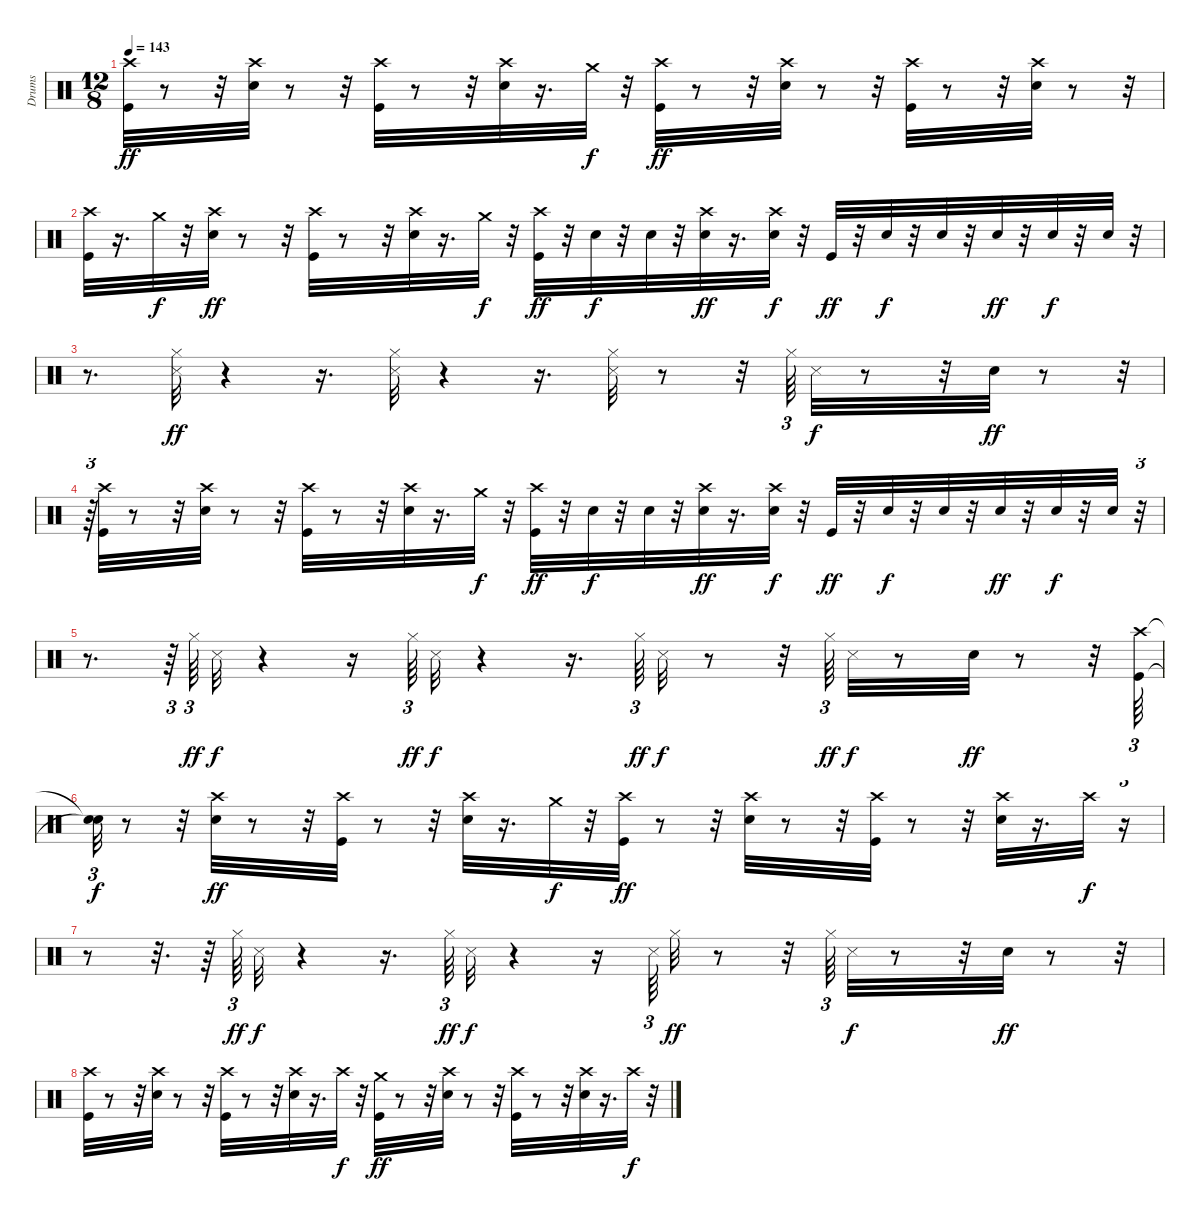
\track ("Drums" "Drums") {instrument percussion}
\staff {score}
\articulation defaults
\ts (12 8)
\tempo 143
\clef neutral
\ks c
("Crash high (hit)" "Kick (hit)").32{dy ff} r.8 r.32 ("Crash high (hit)" "Snare (hit) 2").32 r.8 r.32 ("Crash high (hit)" "Kick (hit)").32 r.8 r.32 ("Crash high (hit)" "Snare (hit) 2").32 r.16{d} "Crash medium (hit)".32{dy f} r.32 ("Crash high (hit)" "Kick (hit)").32{dy ff} r.8 r.32 ("Crash high (hit)" "Snare (hit) 2").32 r.8 r.32 ("Crash high (hit)" "Kick (hit)").32 r.8 r.32 ("Crash high (hit)" "Snare (hit) 2").32 r.8 r.32 |
("Crash high (hit)" "Kick (hit)").32 r.16{d} "Crash medium (hit)".32{dy f} r.32 ("Crash high (hit)" "Snare (hit) 2").32{dy ff} r.8 r.32 ("Crash high (hit)" "Kick (hit)").32 r.8 r.32 ("Crash high (hit)" "Snare (hit) 2").32 r.16{d} "Crash medium (hit)".32{dy f} r.32 ("Crash high (hit)" "Kick (hit)").32{dy ff} r.32 "Snare (hit) 2".32{dy f} r.32 "Snare (hit) 2".32 r.32 ("Crash high (hit)" "Snare (hit) 2").32{dy ff} r.16{d} ("Snare (hit) 2" "Crash high (hit)").32{dy f} r.32 "Kick (hit)".32{dy ff} r.32 "Snare (hit) 2".32{dy f} r.32 "Snare (hit) 2".32 r.32 "Snare (hit) 2".32{dy ff} r.32 "Snare (hit) 2".32{dy f} r.32 "Snare (hit) 2".32 r.32 |
r.8{d} ("Hi-Hat (closed)" "Metronome (hit)").32{dy ff} r.4 r.16{d} ("Hi-Hat (closed)" "Metronome (hit)").32 r.4 r.16{d} ("Hi-Hat (closed)" "Metronome (hit)").32 r.8 r.32 "Hi-Hat (closed)".64{tu (3 2)} "Metronome (hit)".32{dy f} r.8 r.32 "Snare (hit) 2".32{dy ff} r.8 r.32{tu (3 2)} |
r.64{tu (3 2)} ("Crash high (hit)" "Kick (hit)").32 r.8 r.32 ("Crash high (hit)" "Snare (hit) 2").32 r.8 r.32 ("Crash high (hit)" "Kick (hit)").32 r.8 r.32 ("Crash high (hit)" "Snare (hit) 2").32 r.16{d} "Crash medium (hit)".32{dy f} r.32 ("Crash high (hit)" "Kick (hit)").32{dy ff} r.32 "Snare (hit) 2".32{dy f} r.32 "Snare (hit) 2".32 r.32 ("Crash high (hit)" "Snare (hit) 2").32{dy ff} r.16{d} ("Snare (hit) 2" "Crash high (hit)").32{dy f} r.32 "Kick (hit)".32{dy ff} r.32 "Snare (hit) 2".32{dy f} r.32 "Snare (hit) 2".32 r.32 "Snare (hit) 2".32{dy ff} r.32 "Snare (hit) 2".32{dy f} r.32 "Snare (hit) 2".32 r.32{tu (3 2)} |
r.8{d} r.64{tu (3 2)} "Hi-Hat (closed)".64{tu (3 2) dy ff} "Metronome (hit)".32{dy f} r.4 r.16 "Hi-Hat (closed)".64{tu (3 2) dy ff} "Metronome (hit)".32{dy f} r.4 r.16{d} "Hi-Hat (closed)".64{tu (3 2) dy ff} "Metronome (hit)".32{dy f} r.8 r.32 "Hi-Hat (closed)".64{tu (3 2) dy ff} "Metronome (hit)".32{dy f} r.8 "Snare (hit) 2".32{dy ff} r.8 r.32 ("Crash high (hit)" "Kick (hit)").64{tu (3 2)} |
("Snare (hit)"{t} "Snare (hit)"{t}).32{tu (3 2) dy f} r.8 r.32 ("Crash high (hit)" "Snare (hit) 2").32{dy ff} r.8 r.32 ("Crash high (hit)" "Kick (hit)").32 r.8 r.32 ("Crash high (hit)" "Snare (hit) 2").32 r.16{d} "Crash medium (hit)".32{dy f} r.32 ("Crash high (hit)" "Kick (hit)").32{dy ff} r.8 r.32 ("Crash high (hit)" "Snare (hit) 2").32 r.8 r.32 ("Crash high (hit)" "Kick (hit)").32 r.8 r.32 ("Crash high (hit)" "Snare (hit) 2").32 r.16{d} "Crash high (hit)".32{dy f} r.16{tu (3 2)} |
r.8 r.32{d} r.64 "Hi-Hat (closed)".64{tu (3 2) dy ff} "Metronome (hit)".32{dy f} r.4 r.16{d} "Hi-Hat (closed)".64{tu (3 2) dy ff} "Metronome (hit)".32{dy f} r.4 r.16 "Metronome (hit)".64{tu (3 2)} "Hi-Hat (closed)".32{dy ff} r.8 r.32 "Hi-Hat (closed)".64{tu (3 2)} "Metronome (hit)".32{dy f} r.8 r.32 "Snare (hit) 2".32{dy ff} r.8 r.32 |
("Crash high (hit)" "Kick (hit)").32 r.8 r.32 ("Crash high (hit)" "Snare (hit) 2").32 r.8 r.32 ("Crash high (hit)" "Kick (hit)").32 r.8 r.32 ("Crash high (hit)" "Snare (hit) 2").32 r.16{d} "Crash high (hit)".32{dy f} r.32 ("Crash medium (hit)" "Kick (hit)").32{dy ff} r.8 r.32 ("Crash high (hit)" "Snare (hit) 2").32 r.8 r.32 ("Crash high (hit)" "Kick (hit)").32 r.8 r.32 ("Crash high (hit)" "Snare (hit) 2").32 r.16{d} "Crash high (hit)".32{dy f} r.32
